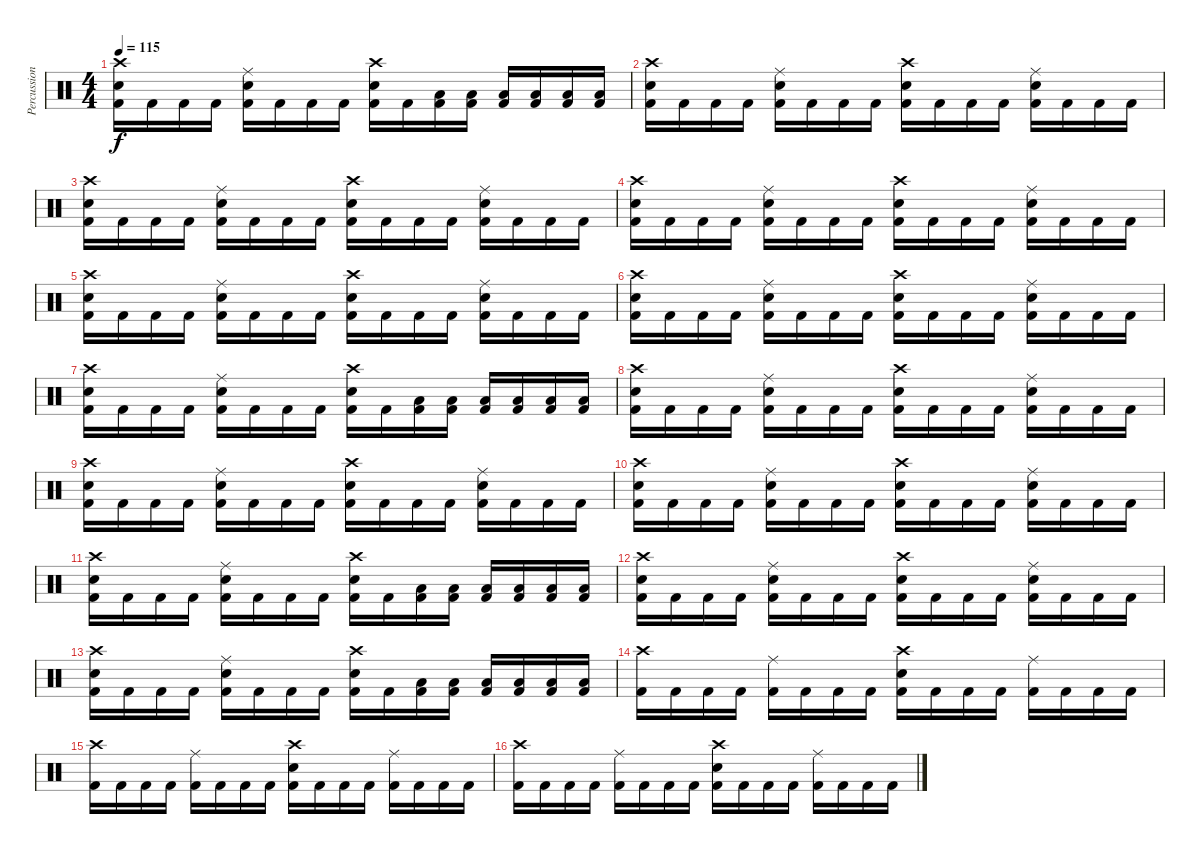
\track ("Percussion" "Percussion") {instrument percussion}
\staff {score}
\articulation defaults
\ts (4 4)
\tempo 115
\clef neutral
\ks c
("Crash high (hit)" "Electric Snare (hit)" "Kick (hit) 2").16{dy f} "Kick (hit) 2".16 "Kick (hit) 2".16 "Kick (hit) 2".16 ("Ride (middle)" "Electric Snare (hit)" "Kick (hit) 2").16 "Kick (hit) 2".16 "Kick (hit) 2".16 "Kick (hit) 2".16 ("Crash high (hit)" "Electric Snare (hit)" "Kick (hit) 2").16 "Kick (hit) 2".16 ("Low Floor Tom (hit)" "Kick (hit) 2").16 ("Low Floor Tom (hit)" "Kick (hit) 2").16 ("Low Floor Tom (hit)" "Kick (hit) 2").16 ("Low Floor Tom (hit)" "Kick (hit) 2").16 ("Low Floor Tom (hit)" "Kick (hit) 2").16 ("Low Floor Tom (hit)" "Kick (hit) 2").16 |
("Crash high (hit)" "Electric Snare (hit)" "Kick (hit) 2").16 "Kick (hit) 2".16 "Kick (hit) 2".16 "Kick (hit) 2".16 ("Ride (middle)" "Electric Snare (hit)" "Kick (hit) 2").16 "Kick (hit) 2".16 "Kick (hit) 2".16 "Kick (hit) 2".16 ("Crash high (hit)" "Electric Snare (hit)" "Kick (hit) 2").16 "Kick (hit) 2".16 "Kick (hit) 2".16 "Kick (hit) 2".16 ("Ride (middle)" "Electric Snare (hit)" "Kick (hit) 2").16 "Kick (hit) 2".16 "Kick (hit) 2".16 "Kick (hit) 2".16 |
("Crash high (hit)" "Electric Snare (hit)" "Kick (hit) 2").16 "Kick (hit) 2".16 "Kick (hit) 2".16 "Kick (hit) 2".16 ("Ride (middle)" "Electric Snare (hit)" "Kick (hit) 2").16 "Kick (hit) 2".16 "Kick (hit) 2".16 "Kick (hit) 2".16 ("Crash high (hit)" "Electric Snare (hit)" "Kick (hit) 2").16 "Kick (hit) 2".16 "Kick (hit) 2".16 "Kick (hit) 2".16 ("Ride (middle)" "Electric Snare (hit)" "Kick (hit) 2").16 "Kick (hit) 2".16 "Kick (hit) 2".16 "Kick (hit) 2".16 |
("Crash high (hit)" "Electric Snare (hit)" "Kick (hit) 2").16 "Kick (hit) 2".16 "Kick (hit) 2".16 "Kick (hit) 2".16 ("Ride (middle)" "Electric Snare (hit)" "Kick (hit) 2").16 "Kick (hit) 2".16 "Kick (hit) 2".16 "Kick (hit) 2".16 ("Crash high (hit)" "Electric Snare (hit)" "Kick (hit) 2").16 "Kick (hit) 2".16 "Kick (hit) 2".16 "Kick (hit) 2".16 ("Ride (middle)" "Electric Snare (hit)" "Kick (hit) 2").16 "Kick (hit) 2".16 "Kick (hit) 2".16 "Kick (hit) 2".16 |
("Crash high (hit)" "Electric Snare (hit)" "Kick (hit) 2").16 "Kick (hit) 2".16 "Kick (hit) 2".16 "Kick (hit) 2".16 ("Ride (middle)" "Electric Snare (hit)" "Kick (hit) 2").16 "Kick (hit) 2".16 "Kick (hit) 2".16 "Kick (hit) 2".16 ("Crash high (hit)" "Electric Snare (hit)" "Kick (hit) 2").16 "Kick (hit) 2".16 "Kick (hit) 2".16 "Kick (hit) 2".16 ("Ride (middle)" "Electric Snare (hit)" "Kick (hit) 2").16 "Kick (hit) 2".16 "Kick (hit) 2".16 "Kick (hit) 2".16 |
("Crash high (hit)" "Electric Snare (hit)" "Kick (hit) 2").16 "Kick (hit) 2".16 "Kick (hit) 2".16 "Kick (hit) 2".16 ("Ride (middle)" "Electric Snare (hit)" "Kick (hit) 2").16 "Kick (hit) 2".16 "Kick (hit) 2".16 "Kick (hit) 2".16 ("Crash high (hit)" "Electric Snare (hit)" "Kick (hit) 2").16 "Kick (hit) 2".16 "Kick (hit) 2".16 "Kick (hit) 2".16 ("Ride (middle)" "Electric Snare (hit)" "Kick (hit) 2").16 "Kick (hit) 2".16 "Kick (hit) 2".16 "Kick (hit) 2".16 |
("Crash high (hit)" "Electric Snare (hit)" "Kick (hit) 2").16 "Kick (hit) 2".16 "Kick (hit) 2".16 "Kick (hit) 2".16 ("Ride (middle)" "Electric Snare (hit)" "Kick (hit) 2").16 "Kick (hit) 2".16 "Kick (hit) 2".16 "Kick (hit) 2".16 ("Crash high (hit)" "Electric Snare (hit)" "Kick (hit) 2").16 "Kick (hit) 2".16 ("Low Floor Tom (hit)" "Kick (hit) 2").16 ("Low Floor Tom (hit)" "Kick (hit) 2").16 ("Low Floor Tom (hit)" "Kick (hit) 2").16 ("Low Floor Tom (hit)" "Kick (hit) 2").16 ("Low Floor Tom (hit)" "Kick (hit) 2").16 ("Low Floor Tom (hit)" "Kick (hit) 2").16 |
("Crash high (hit)" "Electric Snare (hit)" "Kick (hit) 2").16 "Kick (hit) 2".16 "Kick (hit) 2".16 "Kick (hit) 2".16 ("Ride (middle)" "Electric Snare (hit)" "Kick (hit) 2").16 "Kick (hit) 2".16 "Kick (hit) 2".16 "Kick (hit) 2".16 ("Crash high (hit)" "Electric Snare (hit)" "Kick (hit) 2").16 "Kick (hit) 2".16 "Kick (hit) 2".16 "Kick (hit) 2".16 ("Ride (middle)" "Electric Snare (hit)" "Kick (hit) 2").16 "Kick (hit) 2".16 "Kick (hit) 2".16 "Kick (hit) 2".16 |
("Crash high (hit)" "Electric Snare (hit)" "Kick (hit) 2").16 "Kick (hit) 2".16 "Kick (hit) 2".16 "Kick (hit) 2".16 ("Ride (middle)" "Electric Snare (hit)" "Kick (hit) 2").16 "Kick (hit) 2".16 "Kick (hit) 2".16 "Kick (hit) 2".16 ("Crash high (hit)" "Electric Snare (hit)" "Kick (hit) 2").16 "Kick (hit) 2".16 "Kick (hit) 2".16 "Kick (hit) 2".16 ("Ride (middle)" "Electric Snare (hit)" "Kick (hit) 2").16 "Kick (hit) 2".16 "Kick (hit) 2".16 "Kick (hit) 2".16 |
("Crash high (hit)" "Electric Snare (hit)" "Kick (hit) 2").16 "Kick (hit) 2".16 "Kick (hit) 2".16 "Kick (hit) 2".16 ("Ride (middle)" "Electric Snare (hit)" "Kick (hit) 2").16 "Kick (hit) 2".16 "Kick (hit) 2".16 "Kick (hit) 2".16 ("Crash high (hit)" "Electric Snare (hit)" "Kick (hit) 2").16 "Kick (hit) 2".16 "Kick (hit) 2".16 "Kick (hit) 2".16 ("Ride (middle)" "Electric Snare (hit)" "Kick (hit) 2").16 "Kick (hit) 2".16 "Kick (hit) 2".16 "Kick (hit) 2".16 |
("Crash high (hit)" "Electric Snare (hit)" "Kick (hit) 2").16 "Kick (hit) 2".16 "Kick (hit) 2".16 "Kick (hit) 2".16 ("Ride (middle)" "Electric Snare (hit)" "Kick (hit) 2").16 "Kick (hit) 2".16 "Kick (hit) 2".16 "Kick (hit) 2".16 ("Crash high (hit)" "Electric Snare (hit)" "Kick (hit) 2").16 "Kick (hit) 2".16 ("Low Floor Tom (hit)" "Kick (hit) 2").16 ("Low Floor Tom (hit)" "Kick (hit) 2").16 ("Low Floor Tom (hit)" "Kick (hit) 2").16 ("Low Floor Tom (hit)" "Kick (hit) 2").16 ("Low Floor Tom (hit)" "Kick (hit) 2").16 ("Low Floor Tom (hit)" "Kick (hit) 2").16 |
("Crash high (hit)" "Electric Snare (hit)" "Kick (hit) 2").16 "Kick (hit) 2".16 "Kick (hit) 2".16 "Kick (hit) 2".16 ("Ride (middle)" "Electric Snare (hit)" "Kick (hit) 2").16 "Kick (hit) 2".16 "Kick (hit) 2".16 "Kick (hit) 2".16 ("Crash high (hit)" "Electric Snare (hit)" "Kick (hit) 2").16 "Kick (hit) 2".16 "Kick (hit) 2".16 "Kick (hit) 2".16 ("Ride (middle)" "Electric Snare (hit)" "Kick (hit) 2").16 "Kick (hit) 2".16 "Kick (hit) 2".16 "Kick (hit) 2".16 |
("Crash high (hit)" "Electric Snare (hit)" "Kick (hit) 2").16 "Kick (hit) 2".16 "Kick (hit) 2".16 "Kick (hit) 2".16 ("Ride (middle)" "Electric Snare (hit)" "Kick (hit) 2").16 "Kick (hit) 2".16 "Kick (hit) 2".16 "Kick (hit) 2".16 ("Crash high (hit)" "Electric Snare (hit)" "Kick (hit) 2").16 "Kick (hit) 2".16 ("Low Floor Tom (hit)" "Kick (hit) 2").16 ("Low Floor Tom (hit)" "Kick (hit) 2").16 ("Low Floor Tom (hit)" "Kick (hit) 2").16 ("Low Floor Tom (hit)" "Kick (hit) 2").16 ("Low Floor Tom (hit)" "Kick (hit) 2").16 ("Low Floor Tom (hit)" "Kick (hit) 2").16 |
("Crash high (hit)" "Kick (hit) 2").16 "Kick (hit) 2".16 "Kick (hit) 2".16 "Kick (hit) 2".16 ("Ride (middle)" "Kick (hit) 2").16 "Kick (hit) 2".16 "Kick (hit) 2".16 "Kick (hit) 2".16 ("Crash high (hit)" "Electric Snare (hit)" "Kick (hit) 2").16 "Kick (hit) 2".16 "Kick (hit) 2".16 "Kick (hit) 2".16 ("Ride (middle)" "Kick (hit) 2").16 "Kick (hit) 2".16 "Kick (hit) 2".16 "Kick (hit) 2".16 |
("Crash high (hit)" "Kick (hit) 2").16 "Kick (hit) 2".16 "Kick (hit) 2".16 "Kick (hit) 2".16 ("Ride (middle)" "Kick (hit) 2").16 "Kick (hit) 2".16 "Kick (hit) 2".16 "Kick (hit) 2".16 ("Crash high (hit)" "Electric Snare (hit)" "Kick (hit) 2").16 "Kick (hit) 2".16 "Kick (hit) 2".16 "Kick (hit) 2".16 ("Ride (middle)" "Kick (hit) 2").16 "Kick (hit) 2".16 "Kick (hit) 2".16 "Kick (hit) 2".16 |
("Crash high (hit)" "Kick (hit) 2").16 "Kick (hit) 2".16 "Kick (hit) 2".16 "Kick (hit) 2".16 ("Ride (middle)" "Kick (hit) 2").16 "Kick (hit) 2".16 "Kick (hit) 2".16 "Kick (hit) 2".16 ("Crash high (hit)" "Electric Snare (hit)" "Kick (hit) 2").16 "Kick (hit) 2".16 "Kick (hit) 2".16 "Kick (hit) 2".16 ("Ride (middle)" "Kick (hit) 2").16 "Kick (hit) 2".16 "Kick (hit) 2".16 "Kick (hit) 2".16
